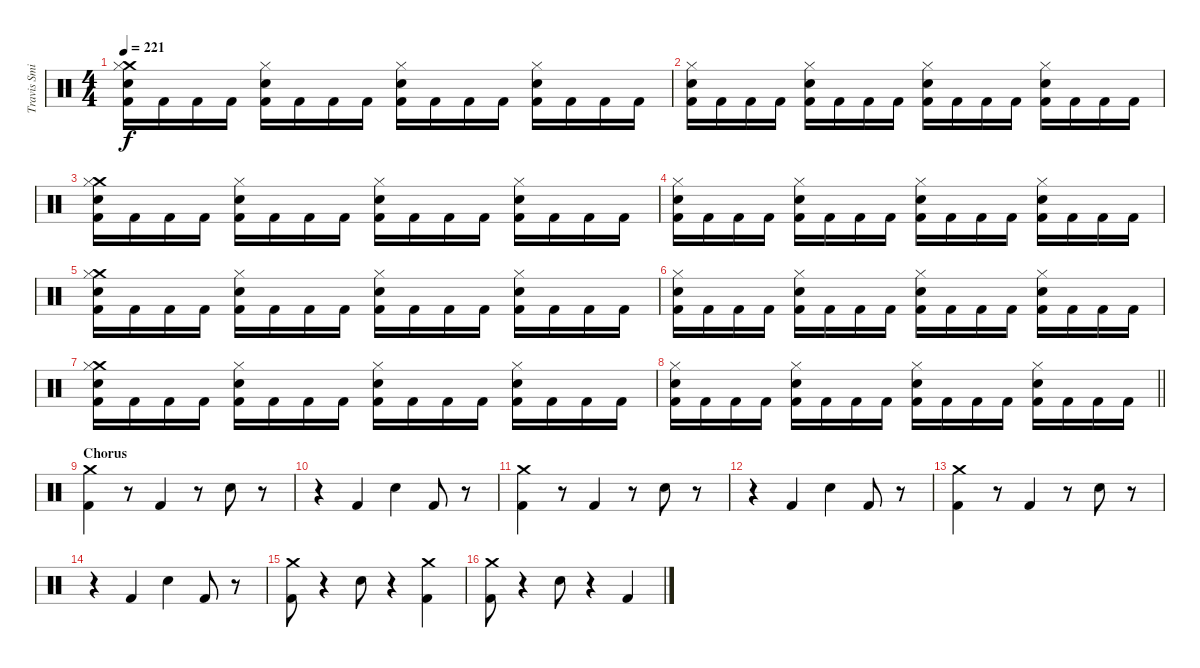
\track ("Travis Smith" "Travis Smi") {instrument percussion}
\staff {score}
\articulation defaults
\ts (4 4)
\tempo 221
\clef neutral
\ks c
("Crash medium (hit)" "Hi-Hat (closed)" "Electric Snare (hit)" "Kick (hit) 2").16{dy f} "Kick (hit) 2".16 "Kick (hit) 2".16 "Kick (hit) 2".16 ("Hi-Hat (closed)" "Electric Snare (hit)" "Kick (hit) 2").16 "Kick (hit) 2".16 "Kick (hit) 2".16 "Kick (hit) 2".16 ("Hi-Hat (closed)" "Electric Snare (hit)" "Kick (hit) 2").16 "Kick (hit) 2".16 "Kick (hit) 2".16 "Kick (hit) 2".16 ("Hi-Hat (closed)" "Electric Snare (hit)" "Kick (hit) 2").16 "Kick (hit) 2".16 "Kick (hit) 2".16 "Kick (hit) 2".16 |
("Hi-Hat (closed)" "Electric Snare (hit)" "Kick (hit) 2").16 "Kick (hit) 2".16 "Kick (hit) 2".16 "Kick (hit) 2".16 ("Hi-Hat (closed)" "Electric Snare (hit)" "Kick (hit) 2").16 "Kick (hit) 2".16 "Kick (hit) 2".16 "Kick (hit) 2".16 ("Hi-Hat (closed)" "Electric Snare (hit)" "Kick (hit) 2").16 "Kick (hit) 2".16 "Kick (hit) 2".16 "Kick (hit) 2".16 ("Hi-Hat (closed)" "Electric Snare (hit)" "Kick (hit) 2").16 "Kick (hit) 2".16 "Kick (hit) 2".16 "Kick (hit) 2".16 |
("Crash medium (hit)" "Hi-Hat (closed)" "Electric Snare (hit)" "Kick (hit) 2").16 "Kick (hit) 2".16 "Kick (hit) 2".16 "Kick (hit) 2".16 ("Hi-Hat (closed)" "Electric Snare (hit)" "Kick (hit) 2").16 "Kick (hit) 2".16 "Kick (hit) 2".16 "Kick (hit) 2".16 ("Hi-Hat (closed)" "Electric Snare (hit)" "Kick (hit) 2").16 "Kick (hit) 2".16 "Kick (hit) 2".16 "Kick (hit) 2".16 ("Hi-Hat (closed)" "Electric Snare (hit)" "Kick (hit) 2").16 "Kick (hit) 2".16 "Kick (hit) 2".16 "Kick (hit) 2".16 |
("Hi-Hat (closed)" "Electric Snare (hit)" "Kick (hit) 2").16 "Kick (hit) 2".16 "Kick (hit) 2".16 "Kick (hit) 2".16 ("Hi-Hat (closed)" "Electric Snare (hit)" "Kick (hit) 2").16 "Kick (hit) 2".16 "Kick (hit) 2".16 "Kick (hit) 2".16 ("Hi-Hat (closed)" "Electric Snare (hit)" "Kick (hit) 2").16 "Kick (hit) 2".16 "Kick (hit) 2".16 "Kick (hit) 2".16 ("Hi-Hat (closed)" "Electric Snare (hit)" "Kick (hit) 2").16 "Kick (hit) 2".16 "Kick (hit) 2".16 "Kick (hit) 2".16 |
("Crash medium (hit)" "Hi-Hat (closed)" "Electric Snare (hit)" "Kick (hit) 2").16 "Kick (hit) 2".16 "Kick (hit) 2".16 "Kick (hit) 2".16 ("Hi-Hat (closed)" "Electric Snare (hit)" "Kick (hit) 2").16 "Kick (hit) 2".16 "Kick (hit) 2".16 "Kick (hit) 2".16 ("Hi-Hat (closed)" "Electric Snare (hit)" "Kick (hit) 2").16 "Kick (hit) 2".16 "Kick (hit) 2".16 "Kick (hit) 2".16 ("Hi-Hat (closed)" "Electric Snare (hit)" "Kick (hit) 2").16 "Kick (hit) 2".16 "Kick (hit) 2".16 "Kick (hit) 2".16 |
("Hi-Hat (closed)" "Electric Snare (hit)" "Kick (hit) 2").16 "Kick (hit) 2".16 "Kick (hit) 2".16 "Kick (hit) 2".16 ("Hi-Hat (closed)" "Electric Snare (hit)" "Kick (hit) 2").16 "Kick (hit) 2".16 "Kick (hit) 2".16 "Kick (hit) 2".16 ("Hi-Hat (closed)" "Electric Snare (hit)" "Kick (hit) 2").16 "Kick (hit) 2".16 "Kick (hit) 2".16 "Kick (hit) 2".16 ("Hi-Hat (closed)" "Electric Snare (hit)" "Kick (hit) 2").16 "Kick (hit) 2".16 "Kick (hit) 2".16 "Kick (hit) 2".16 |
("Crash medium (hit)" "Hi-Hat (closed)" "Electric Snare (hit)" "Kick (hit) 2").16 "Kick (hit) 2".16 "Kick (hit) 2".16 "Kick (hit) 2".16 ("Hi-Hat (closed)" "Electric Snare (hit)" "Kick (hit) 2").16 "Kick (hit) 2".16 "Kick (hit) 2".16 "Kick (hit) 2".16 ("Hi-Hat (closed)" "Electric Snare (hit)" "Kick (hit) 2").16 "Kick (hit) 2".16 "Kick (hit) 2".16 "Kick (hit) 2".16 ("Hi-Hat (closed)" "Electric Snare (hit)" "Kick (hit) 2").16 "Kick (hit) 2".16 "Kick (hit) 2".16 "Kick (hit) 2".16 |
\barLineRight lightlight
("Hi-Hat (closed)" "Electric Snare (hit)" "Kick (hit) 2").16 "Kick (hit) 2".16 "Kick (hit) 2".16 "Kick (hit) 2".16 ("Hi-Hat (closed)" "Electric Snare (hit)" "Kick (hit) 2").16 "Kick (hit) 2".16 "Kick (hit) 2".16 "Kick (hit) 2".16 ("Hi-Hat (closed)" "Electric Snare (hit)" "Kick (hit) 2").16 "Kick (hit) 2".16 "Kick (hit) 2".16 "Kick (hit) 2".16 ("Hi-Hat (closed)" "Electric Snare (hit)" "Kick (hit) 2").16 "Kick (hit) 2".16 "Kick (hit) 2".16 "Kick (hit) 2".16 |
\section ("" "Chorus")
("Crash medium (hit)" "Kick (hit) 2").4 r.8 "Kick (hit) 2".4 r.8 "Electric Snare (hit)".8 r.8 |
r.4 "Kick (hit) 2".4 "Electric Snare (hit)".4 "Kick (hit) 2".8 r.8 |
("Crash medium (hit)" "Kick (hit) 2").4 r.8 "Kick (hit) 2".4 r.8 "Electric Snare (hit)".8 r.8 |
r.4 "Kick (hit) 2".4 "Electric Snare (hit)".4 "Kick (hit) 2".8 r.8 |
("Crash medium (hit)" "Kick (hit) 2").4 r.8 "Kick (hit) 2".4 r.8 "Electric Snare (hit)".8 r.8 |
r.4 "Kick (hit) 2".4 "Electric Snare (hit)".4 "Kick (hit) 2".8 r.8 |
("Crash medium (hit)" "Kick (hit) 2").8 r.4 "Electric Snare (hit)".8 r.4 ("Crash medium (hit)" "Kick (hit) 2").4 |
("Crash medium (hit)" "Kick (hit) 2").8 r.4 "Electric Snare (hit)".8 r.4 "Kick (hit) 2".4
